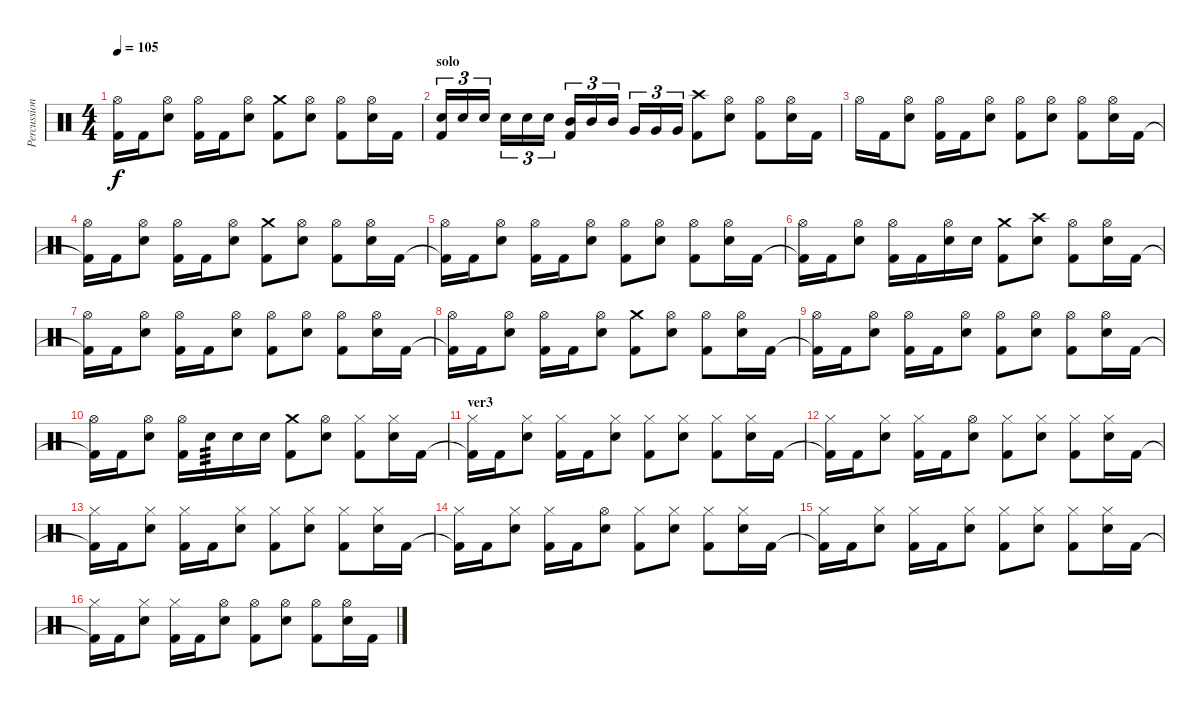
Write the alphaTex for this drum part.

\track ("Percussion" "Percussion") {instrument percussion}
\staff {score}
\articulation defaults
\ts (4 4)
\tempo 105
\clef neutral
\ks c
("Kick (hit) 2"{t} "Hi-Hat (open)").16{dy f} "Kick (hit) 2".16 ("Electric Snare (hit)" "Hi-Hat (open)").8 ("Kick (hit) 2" "Hi-Hat (open)").16 "Kick (hit) 2".16 ("Electric Snare (hit)" "Hi-Hat (open)").8 ("Kick (hit) 2" "Crash medium (hit)").8 ("Electric Snare (hit)" "Hi-Hat (open)").8 ("Kick (hit) 2" "Hi-Hat (open)").8 ("Electric Snare (hit)" "Hi-Hat (open)").16 "Kick (hit) 2".16 |
\section ("" "solo")
("Kick (hit) 2" "Electric Snare (hit)").16{tu (3 2)} "Electric Snare (hit)".16{tu (3 2)} "Electric Snare (hit)".16{tu (3 2)} "Electric Snare (hit)".16{tu (3 2)} "Electric Snare (hit)".16{tu (3 2)} "Electric Snare (hit)".16{tu (3 2)} ("Kick (hit) 2" "Mid Tom (hit)").16{tu (3 2)} "Mid Tom (hit)".16{tu (3 2)} "Mid Tom (hit)".16{tu (3 2)} "Very Low Tom (hit)".16{tu (3 2)} "Very Low Tom (hit)".16{tu (3 2)} "Very Low Tom (hit)".16{tu (3 2)} ("Kick (hit) 2" "Crash high (hit)").8 ("Electric Snare (hit)" "Hi-Hat (open)").8 ("Kick (hit) 2" "Hi-Hat (open)").8 ("Electric Snare (hit)" "Hi-Hat (open)").16 "Kick (hit) 2".16 |
"Hi-Hat (open)".16 "Kick (hit) 2".16 ("Electric Snare (hit)" "Hi-Hat (open)").8 ("Kick (hit) 2" "Hi-Hat (open)").16 "Kick (hit) 2".16 ("Electric Snare (hit)" "Hi-Hat (open)").8 ("Kick (hit) 2" "Hi-Hat (open)").8 ("Electric Snare (hit)" "Hi-Hat (open)").8 ("Kick (hit) 2" "Hi-Hat (open)").8 ("Electric Snare (hit)" "Hi-Hat (open)").16 "Kick (hit) 2".16 |
("Kick (hit) 2"{t} "Hi-Hat (open)").16 "Kick (hit) 2".16 ("Electric Snare (hit)" "Hi-Hat (open)").8 ("Kick (hit) 2" "Hi-Hat (open)").16 "Kick (hit) 2".16 ("Electric Snare (hit)" "Hi-Hat (open)").8 ("Kick (hit) 2" "Crash medium (hit)").8 ("Electric Snare (hit)" "Hi-Hat (open)").8 ("Kick (hit) 2" "Hi-Hat (open)").8 ("Electric Snare (hit)" "Hi-Hat (open)").16 "Kick (hit) 2".16 |
("Kick (hit) 2"{t} "Hi-Hat (open)").16 "Kick (hit) 2".16 ("Electric Snare (hit)" "Hi-Hat (open)").8 ("Kick (hit) 2" "Hi-Hat (open)").16 "Kick (hit) 2".16 ("Electric Snare (hit)" "Hi-Hat (open)").8 ("Kick (hit) 2" "Hi-Hat (open)").8 ("Electric Snare (hit)" "Hi-Hat (open)").8 ("Kick (hit) 2" "Hi-Hat (open)").8 ("Electric Snare (hit)" "Hi-Hat (open)").16 "Kick (hit) 2".16 |
("Kick (hit) 2"{t} "Hi-Hat (open)").16 "Kick (hit) 2".16 ("Electric Snare (hit)" "Hi-Hat (open)").8 ("Kick (hit) 2" "Hi-Hat (open)").16 "Kick (hit) 2".16 ("Electric Snare (hit)" "Hi-Hat (open)").16 "Electric Snare (hit)".16 ("Kick (hit) 2" "Crash medium (hit)").8 ("Electric Snare (hit)" "Crash high (hit)").8 ("Kick (hit) 2" "Hi-Hat (open)").8 ("Electric Snare (hit)" "Hi-Hat (open)").16 "Kick (hit) 2".16 |
("Kick (hit) 2"{t} "Hi-Hat (open)").16 "Kick (hit) 2".16 ("Electric Snare (hit)" "Hi-Hat (open)").8 ("Kick (hit) 2" "Hi-Hat (open)").16 "Kick (hit) 2".16 ("Electric Snare (hit)" "Hi-Hat (open)").8 ("Kick (hit) 2" "Hi-Hat (open)").8 ("Electric Snare (hit)" "Hi-Hat (open)").8 ("Kick (hit) 2" "Hi-Hat (open)").8 ("Electric Snare (hit)" "Hi-Hat (open)").16 "Kick (hit) 2".16 |
("Kick (hit) 2"{t} "Hi-Hat (open)").16 "Kick (hit) 2".16 ("Electric Snare (hit)" "Hi-Hat (open)").8 ("Kick (hit) 2" "Hi-Hat (open)").16 "Kick (hit) 2".16 ("Electric Snare (hit)" "Hi-Hat (open)").8 ("Kick (hit) 2" "Crash medium (hit)").8 ("Electric Snare (hit)" "Hi-Hat (open)").8 ("Kick (hit) 2" "Hi-Hat (open)").8 ("Electric Snare (hit)" "Hi-Hat (open)").16 "Kick (hit) 2".16 |
("Kick (hit) 2"{t} "Hi-Hat (open)").16 "Kick (hit) 2".16 ("Electric Snare (hit)" "Hi-Hat (open)").8 ("Kick (hit) 2" "Hi-Hat (open)").16 "Kick (hit) 2".16 ("Electric Snare (hit)" "Hi-Hat (open)").8 ("Kick (hit) 2" "Hi-Hat (open)").8 ("Electric Snare (hit)" "Hi-Hat (open)").8 ("Kick (hit) 2" "Hi-Hat (open)").8 ("Electric Snare (hit)" "Hi-Hat (open)").16 "Kick (hit) 2".16 |
("Kick (hit) 2"{t} "Hi-Hat (open)").16 "Kick (hit) 2".16 ("Electric Snare (hit)" "Hi-Hat (open)").8 ("Kick (hit) 2" "Hi-Hat (open)").16 "Electric Snare (hit)".16{tp 3} "Electric Snare (hit)".16 "Electric Snare (hit)".16 ("Kick (hit) 2" "Crash medium (hit)").8 ("Electric Snare (hit)" "Hi-Hat (open)").8 ("Kick (hit) 2" "Hi-Hat (closed)").8 ("Electric Snare (hit)" "Hi-Hat (closed)").16 "Kick (hit) 2".16 |
\section ("" "ver3")
("Kick (hit) 2"{t} "Hi-Hat (closed)").16 "Kick (hit) 2".16 ("Electric Snare (hit)" "Hi-Hat (closed)").8 ("Kick (hit) 2" "Hi-Hat (closed)").16 "Kick (hit) 2".16 ("Electric Snare (hit)" "Hi-Hat (closed)").8 ("Kick (hit) 2" "Hi-Hat (closed)").8 ("Electric Snare (hit)" "Hi-Hat (closed)").8 ("Kick (hit) 2" "Hi-Hat (closed)").8 ("Electric Snare (hit)" "Hi-Hat (closed)").16 "Kick (hit) 2".16 |
("Kick (hit) 2"{t} "Hi-Hat (closed)").16 "Kick (hit) 2".16 ("Electric Snare (hit)" "Hi-Hat (closed)").8 ("Kick (hit) 2" "Hi-Hat (closed)").16 "Kick (hit) 2".16 ("Electric Snare (hit)" "Hi-Hat (open)").8 ("Kick (hit) 2" "Hi-Hat (closed)").8 ("Electric Snare (hit)" "Hi-Hat (closed)").8 ("Kick (hit) 2" "Hi-Hat (closed)").8 ("Electric Snare (hit)" "Hi-Hat (closed)").16 "Kick (hit) 2".16 |
("Kick (hit) 2"{t} "Hi-Hat (closed)").16 "Kick (hit) 2".16 ("Electric Snare (hit)" "Hi-Hat (closed)").8 ("Kick (hit) 2" "Hi-Hat (closed)").16 "Kick (hit) 2".16 ("Electric Snare (hit)" "Hi-Hat (closed)").8 ("Kick (hit) 2" "Hi-Hat (closed)").8 ("Electric Snare (hit)" "Hi-Hat (closed)").8 ("Kick (hit) 2" "Hi-Hat (closed)").8 ("Electric Snare (hit)" "Hi-Hat (closed)").16 "Kick (hit) 2".16 |
("Kick (hit) 2"{t} "Hi-Hat (closed)").16 "Kick (hit) 2".16 ("Electric Snare (hit)" "Hi-Hat (closed)").8 ("Kick (hit) 2" "Hi-Hat (closed)").16 "Kick (hit) 2".16 ("Electric Snare (hit)" "Hi-Hat (open)").8 ("Kick (hit) 2" "Hi-Hat (closed)").8 ("Electric Snare (hit)" "Hi-Hat (closed)").8 ("Kick (hit) 2" "Hi-Hat (closed)").8 ("Electric Snare (hit)" "Hi-Hat (closed)").16 "Kick (hit) 2".16 |
("Kick (hit) 2"{t} "Hi-Hat (closed)").16 "Kick (hit) 2".16 ("Electric Snare (hit)" "Hi-Hat (closed)").8 ("Kick (hit) 2" "Hi-Hat (closed)").16 "Kick (hit) 2".16 ("Electric Snare (hit)" "Hi-Hat (closed)").8 ("Kick (hit) 2" "Hi-Hat (closed)").8 ("Electric Snare (hit)" "Hi-Hat (closed)").8 ("Kick (hit) 2" "Hi-Hat (closed)").8 ("Electric Snare (hit)" "Hi-Hat (closed)").16 "Kick (hit) 2".16 |
("Kick (hit) 2"{t} "Hi-Hat (closed)").16 "Kick (hit) 2".16 ("Electric Snare (hit)" "Hi-Hat (closed)").8 ("Kick (hit) 2" "Hi-Hat (closed)").16 "Kick (hit) 2".16 ("Electric Snare (hit)" "Hi-Hat (open)").8 ("Kick (hit) 2" "Hi-Hat (open)").8 ("Electric Snare (hit)" "Hi-Hat (open)").8 ("Kick (hit) 2" "Hi-Hat (open)").8 ("Electric Snare (hit)" "Hi-Hat (open)").16 "Kick (hit) 2".16
